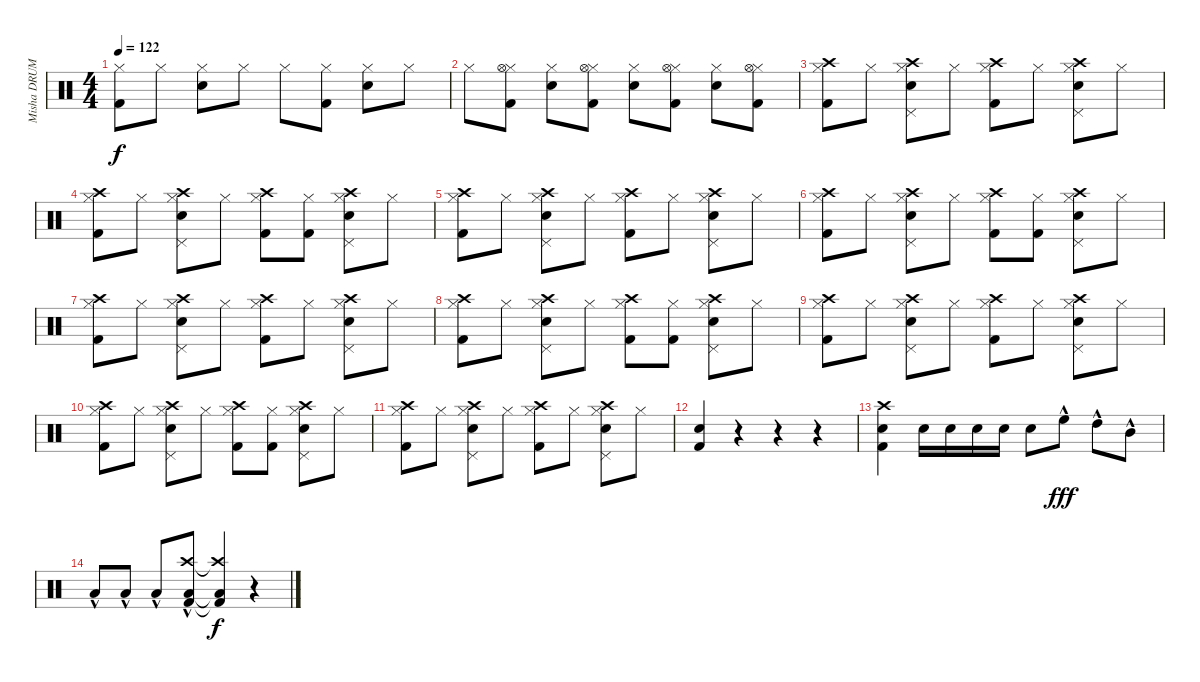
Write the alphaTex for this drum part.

\track ("Misha DRUMS" "Misha DRUM") {instrument percussion}
\staff {score}
\articulation defaults
\ts (4 4)
\tempo 122
\clef neutral
\ks c
("Hi-Hat (closed)" "Kick (hit) 2").8{dy f} "Hi-Hat (closed)".8 ("Hi-Hat (closed)" "Snare (hit) 2").8 "Hi-Hat (closed)".8 "Hi-Hat (closed)".8 ("Hi-Hat (closed)" "Kick (hit) 2").8 ("Hi-Hat (closed)" "Snare (hit) 2").8 "Hi-Hat (closed)".8 |
"Hi-Hat (closed)".8 ("Hi-Hat (closed)" "Hi-Hat (open)" "Kick (hit) 2").8 ("Hi-Hat (closed)" "Snare (hit) 2").8 ("Hi-Hat (closed)" "Hi-Hat (open)" "Kick (hit) 2").8 ("Hi-Hat (closed)" "Snare (hit) 2").8 ("Hi-Hat (closed)" "Hi-Hat (open)" "Kick (hit) 2").8 ("Hi-Hat (closed)" "Snare (hit) 2").8 ("Hi-Hat (closed)" "Hi-Hat (open)" "Kick (hit) 2").8 |
("Hi-Hat (closed)" "Crash high (hit)" "Kick (hit) 2").8 "Hi-Hat (closed)".8 ("Hi-Hat (closed)" "Crash high (hit)" "Pedal Hi-Hat (hit)" "Snare (hit) 2").8 "Hi-Hat (closed)".8 ("Hi-Hat (closed)" "Crash high (hit)" "Kick (hit) 2").8 "Hi-Hat (closed)".8 ("Hi-Hat (closed)" "Crash high (hit)" "Pedal Hi-Hat (hit)" "Snare (hit) 2").8 "Hi-Hat (closed)".8 |
("Hi-Hat (closed)" "Crash high (hit)" "Kick (hit) 2").8 "Hi-Hat (closed)".8 ("Hi-Hat (closed)" "Crash high (hit)" "Pedal Hi-Hat (hit)" "Snare (hit) 2").8 "Hi-Hat (closed)".8 ("Hi-Hat (closed)" "Crash high (hit)" "Kick (hit) 2").8 ("Hi-Hat (closed)" "Kick (hit) 2").8 ("Hi-Hat (closed)" "Crash high (hit)" "Pedal Hi-Hat (hit)" "Snare (hit) 2").8 "Hi-Hat (closed)".8 |
("Hi-Hat (closed)" "Crash high (hit)" "Kick (hit) 2").8 "Hi-Hat (closed)".8 ("Hi-Hat (closed)" "Crash high (hit)" "Pedal Hi-Hat (hit)" "Snare (hit) 2").8 "Hi-Hat (closed)".8 ("Hi-Hat (closed)" "Crash high (hit)" "Kick (hit) 2").8 "Hi-Hat (closed)".8 ("Hi-Hat (closed)" "Crash high (hit)" "Pedal Hi-Hat (hit)" "Snare (hit) 2").8 "Hi-Hat (closed)".8 |
("Hi-Hat (closed)" "Crash high (hit)" "Kick (hit) 2").8 "Hi-Hat (closed)".8 ("Hi-Hat (closed)" "Crash high (hit)" "Pedal Hi-Hat (hit)" "Snare (hit) 2").8 "Hi-Hat (closed)".8 ("Hi-Hat (closed)" "Crash high (hit)" "Kick (hit) 2").8 ("Hi-Hat (closed)" "Kick (hit) 2").8 ("Hi-Hat (closed)" "Crash high (hit)" "Pedal Hi-Hat (hit)" "Snare (hit) 2").8 "Hi-Hat (closed)".8 |
("Hi-Hat (closed)" "Crash high (hit)" "Kick (hit) 2").8 "Hi-Hat (closed)".8 ("Hi-Hat (closed)" "Crash high (hit)" "Pedal Hi-Hat (hit)" "Snare (hit) 2").8 "Hi-Hat (closed)".8 ("Hi-Hat (closed)" "Crash high (hit)" "Kick (hit) 2").8 "Hi-Hat (closed)".8 ("Hi-Hat (closed)" "Crash high (hit)" "Pedal Hi-Hat (hit)" "Snare (hit) 2").8 "Hi-Hat (closed)".8 |
("Hi-Hat (closed)" "Crash high (hit)" "Kick (hit) 2").8 "Hi-Hat (closed)".8 ("Hi-Hat (closed)" "Crash high (hit)" "Pedal Hi-Hat (hit)" "Snare (hit) 2").8 "Hi-Hat (closed)".8 ("Hi-Hat (closed)" "Crash high (hit)" "Kick (hit) 2").8 ("Hi-Hat (closed)" "Kick (hit) 2").8 ("Hi-Hat (closed)" "Crash high (hit)" "Pedal Hi-Hat (hit)" "Snare (hit) 2").8 "Hi-Hat (closed)".8 |
("Hi-Hat (closed)" "Crash high (hit)" "Kick (hit) 2").8 "Hi-Hat (closed)".8 ("Hi-Hat (closed)" "Crash high (hit)" "Pedal Hi-Hat (hit)" "Snare (hit) 2").8 "Hi-Hat (closed)".8 ("Hi-Hat (closed)" "Crash high (hit)" "Kick (hit) 2").8 "Hi-Hat (closed)".8 ("Hi-Hat (closed)" "Crash high (hit)" "Pedal Hi-Hat (hit)" "Snare (hit) 2").8 "Hi-Hat (closed)".8 |
("Hi-Hat (closed)" "Crash high (hit)" "Kick (hit) 2").8 "Hi-Hat (closed)".8 ("Hi-Hat (closed)" "Crash high (hit)" "Pedal Hi-Hat (hit)" "Snare (hit) 2").8 "Hi-Hat (closed)".8 ("Hi-Hat (closed)" "Crash high (hit)" "Kick (hit) 2").8 ("Hi-Hat (closed)" "Kick (hit) 2").8 ("Hi-Hat (closed)" "Crash high (hit)" "Pedal Hi-Hat (hit)" "Snare (hit) 2").8 "Hi-Hat (closed)".8 |
("Hi-Hat (closed)" "Crash high (hit)" "Kick (hit) 2").8 "Hi-Hat (closed)".8 ("Hi-Hat (closed)" "Crash high (hit)" "Pedal Hi-Hat (hit)" "Snare (hit) 2").8 "Hi-Hat (closed)".8 ("Hi-Hat (closed)" "Crash high (hit)" "Kick (hit) 2").8 "Hi-Hat (closed)".8 ("Hi-Hat (closed)" "Crash high (hit)" "Pedal Hi-Hat (hit)" "Snare (hit) 2").8 "Hi-Hat (closed)".8 |
("Snare (hit) 2" "Kick (hit) 2").4 r.4 r.4 r.4 |
("Crash high (hit)" "Snare (hit) 2" "Kick (hit) 2").4 "Snare (hit) 2".16 "Snare (hit) 2".16 "Snare (hit) 2".16 "Snare (hit) 2".16 "Snare (hit) 2".8 "High Floor Tom (hit)"{hac}.8{dy fff} "High Tom (hit)"{hac}.8 "Mid Tom (hit)"{hac}.8 |
"Low Tom (hit)"{hac}.8 "Low Tom (hit)"{hac}.8 "Low Tom (hit)"{hac}.8 ("Crash high (hit)" "Low Tom (hit)"{hac} "Kick (hit) 2").8 ("Crash high (hit)"{t} "Low Tom (hit)"{t} "Kick (hit) 2"{t}).4{dy f} r.4
